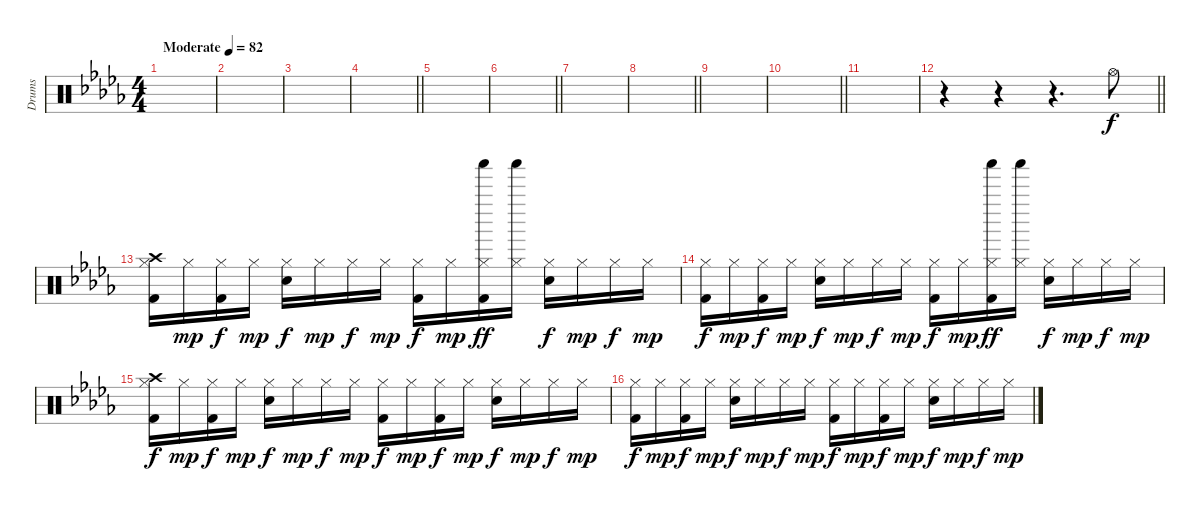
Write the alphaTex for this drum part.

\track ("Drums" "Drums") {instrument percussion}
\staff {score}
\articulation defaults
\ts (4 4)
\tempo (82 "Moderate")
\clef neutral
\ks db
|
|
|
\barLineRight lightlight
|
\section ("" "")
|
\barLineRight lightlight
|
|
\barLineRight lightlight
|
|
\barLineRight lightlight
|
|
\barLineRight lightlight
r.4 r.4 r.4{d} "Hi-Hat (open)".8 |
\section ("" "")
("Crash high (hit)" "Hi-Hat (closed)" "Kick (hit) 2").16 "Hi-Hat (closed)".16{dy mp} ("Hi-Hat (closed)" "Kick (hit) 2").16{dy f} "Hi-Hat (closed)".16{dy mp} ("Hi-Hat (closed)" "Electric Snare (hit)").16{dy f} "Hi-Hat (closed)".16{dy mp} "Hi-Hat (closed)".16{dy f} "Hi-Hat (closed)".16{dy mp} ("Hi-Hat (closed)" "Kick (hit) 2").16{dy f} "Hi-Hat (closed)".16{dy mp} ("Hi-Hat (closed)" "Shaker (hit)" "Kick (hit) 2").16{dy ff} ("Hi-Hat (closed)" "Shaker (hit)").16 ("Hi-Hat (closed)" "Electric Snare (hit)").16{dy f} "Hi-Hat (closed)".16{dy mp} "Hi-Hat (closed)".16{dy f} "Hi-Hat (closed)".16{dy mp} |
("Hi-Hat (closed)" "Kick (hit) 2").16{dy f} "Hi-Hat (closed)".16{dy mp} ("Hi-Hat (closed)" "Kick (hit) 2").16{dy f} "Hi-Hat (closed)".16{dy mp} ("Hi-Hat (closed)" "Electric Snare (hit)").16{dy f} "Hi-Hat (closed)".16{dy mp} "Hi-Hat (closed)".16{dy f} "Hi-Hat (closed)".16{dy mp} ("Hi-Hat (closed)" "Kick (hit) 2").16{dy f} "Hi-Hat (closed)".16{dy mp} ("Hi-Hat (closed)" "Shaker (hit)" "Kick (hit) 2").16{dy ff} ("Hi-Hat (closed)" "Shaker (hit)").16 ("Hi-Hat (closed)" "Electric Snare (hit)").16{dy f} "Hi-Hat (closed)".16{dy mp} "Hi-Hat (closed)".16{dy f} "Hi-Hat (closed)".16{dy mp} |
("Crash high (hit)" "Hi-Hat (closed)" "Kick (hit) 2").16{dy f} "Hi-Hat (closed)".16{dy mp} ("Hi-Hat (closed)" "Kick (hit) 2").16{dy f} "Hi-Hat (closed)".16{dy mp} ("Hi-Hat (closed)" "Electric Snare (hit)").16{dy f} "Hi-Hat (closed)".16{dy mp} "Hi-Hat (closed)".16{dy f} "Hi-Hat (closed)".16{dy mp} ("Hi-Hat (closed)" "Kick (hit) 2").16{dy f} "Hi-Hat (closed)".16{dy mp} ("Hi-Hat (closed)" "Kick (hit) 2").16{dy f} "Hi-Hat (closed)".16{dy mp} ("Hi-Hat (closed)" "Electric Snare (hit)").16{dy f} "Hi-Hat (closed)".16{dy mp} "Hi-Hat (closed)".16{dy f} "Hi-Hat (closed)".16{dy mp} |
("Hi-Hat (closed)" "Kick (hit) 2").16{dy f} "Hi-Hat (closed)".16{dy mp} ("Hi-Hat (closed)" "Kick (hit) 2").16{dy f} "Hi-Hat (closed)".16{dy mp} ("Hi-Hat (closed)" "Electric Snare (hit)").16{dy f} "Hi-Hat (closed)".16{dy mp} "Hi-Hat (closed)".16{dy f} "Hi-Hat (closed)".16{dy mp} ("Hi-Hat (closed)" "Kick (hit) 2").16{dy f} "Hi-Hat (closed)".16{dy mp} ("Hi-Hat (closed)" "Kick (hit) 2").16{dy f} "Hi-Hat (closed)".16{dy mp} ("Hi-Hat (closed)" "Electric Snare (hit)").16{dy f} "Hi-Hat (closed)".16{dy mp} "Hi-Hat (closed)".16{dy f} "Hi-Hat (closed)".16{dy mp}
